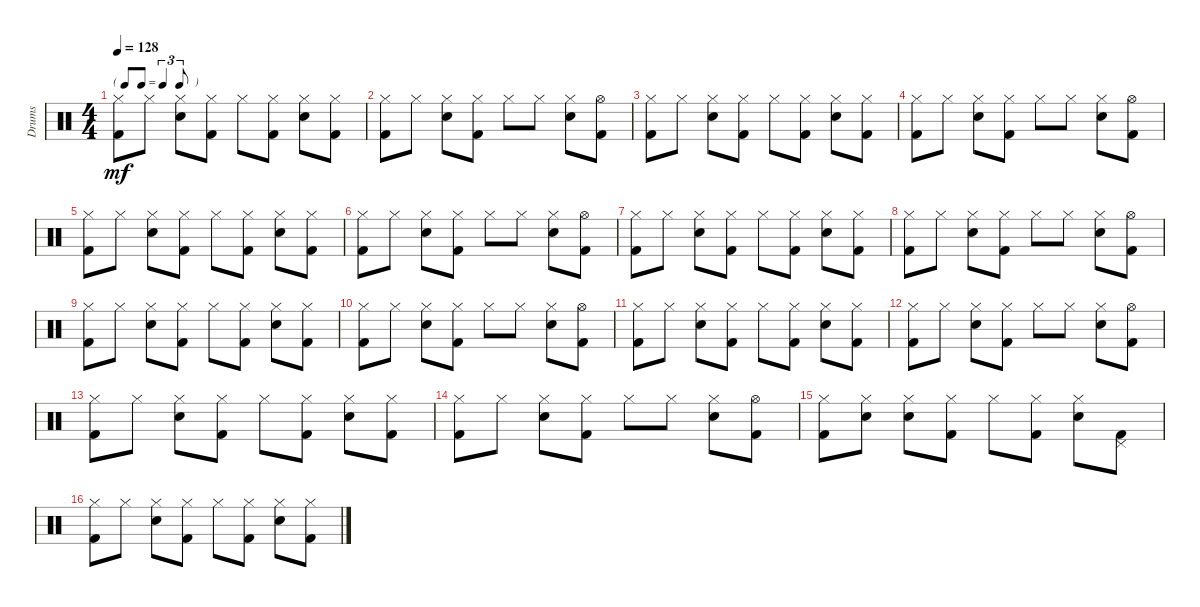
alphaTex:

\track ("Drums" "Drums") {instrument percussion}
\staff {score}
\articulation defaults
\ts (4 4)
\tf triplet8th
\tempo 128
\clef neutral
\ks c
("Hi-Hat (closed)" "Kick (hit) 2").8{dy mf} "Hi-Hat (closed)".8 ("Hi-Hat (closed)" "Electric Snare (hit)").8 ("Hi-Hat (closed)" "Kick (hit) 2").8 "Hi-Hat (closed)".8 ("Hi-Hat (closed)" "Kick (hit) 2").8 ("Hi-Hat (closed)" "Electric Snare (hit)").8 ("Hi-Hat (closed)" "Kick (hit) 2").8 |
("Hi-Hat (closed)" "Kick (hit) 2").8 "Hi-Hat (closed)".8 ("Hi-Hat (closed)" "Electric Snare (hit)").8 ("Hi-Hat (closed)" "Kick (hit) 2").8 "Hi-Hat (closed)".8 "Hi-Hat (closed)".8 ("Hi-Hat (closed)" "Electric Snare (hit)").8 ("Hi-Hat (open)" "Kick (hit) 2").8 |
("Hi-Hat (closed)" "Kick (hit) 2").8 "Hi-Hat (closed)".8 ("Hi-Hat (closed)" "Electric Snare (hit)").8 ("Hi-Hat (closed)" "Kick (hit) 2").8 "Hi-Hat (closed)".8 ("Hi-Hat (closed)" "Kick (hit) 2").8 ("Hi-Hat (closed)" "Electric Snare (hit)").8 ("Hi-Hat (closed)" "Kick (hit) 2").8 |
("Hi-Hat (closed)" "Kick (hit) 2").8 "Hi-Hat (closed)".8 ("Hi-Hat (closed)" "Electric Snare (hit)").8 ("Hi-Hat (closed)" "Kick (hit) 2").8 "Hi-Hat (closed)".8 "Hi-Hat (closed)".8 ("Hi-Hat (closed)" "Electric Snare (hit)").8 ("Hi-Hat (open)" "Kick (hit) 2").8 |
("Hi-Hat (closed)" "Kick (hit) 2").8 "Hi-Hat (closed)".8 ("Hi-Hat (closed)" "Electric Snare (hit)").8 ("Hi-Hat (closed)" "Kick (hit) 2").8 "Hi-Hat (closed)".8 ("Hi-Hat (closed)" "Kick (hit) 2").8 ("Hi-Hat (closed)" "Electric Snare (hit)").8 ("Hi-Hat (closed)" "Kick (hit) 2").8 |
("Hi-Hat (closed)" "Kick (hit) 2").8 "Hi-Hat (closed)".8 ("Hi-Hat (closed)" "Electric Snare (hit)").8 ("Hi-Hat (closed)" "Kick (hit) 2").8 "Hi-Hat (closed)".8 "Hi-Hat (closed)".8 ("Hi-Hat (closed)" "Electric Snare (hit)").8 ("Hi-Hat (open)" "Kick (hit) 2").8 |
("Hi-Hat (closed)" "Kick (hit) 2").8 "Hi-Hat (closed)".8 ("Hi-Hat (closed)" "Electric Snare (hit)").8 ("Hi-Hat (closed)" "Kick (hit) 2").8 "Hi-Hat (closed)".8 ("Hi-Hat (closed)" "Kick (hit) 2").8 ("Hi-Hat (closed)" "Electric Snare (hit)").8 ("Hi-Hat (closed)" "Kick (hit) 2").8 |
("Hi-Hat (closed)" "Kick (hit) 2").8 "Hi-Hat (closed)".8 ("Hi-Hat (closed)" "Electric Snare (hit)").8 ("Hi-Hat (closed)" "Kick (hit) 2").8 "Hi-Hat (closed)".8 "Hi-Hat (closed)".8 ("Hi-Hat (closed)" "Electric Snare (hit)").8 ("Hi-Hat (open)" "Kick (hit) 2").8 |
("Hi-Hat (closed)" "Kick (hit) 2").8 "Hi-Hat (closed)".8 ("Hi-Hat (closed)" "Electric Snare (hit)").8 ("Hi-Hat (closed)" "Kick (hit) 2").8 "Hi-Hat (closed)".8 ("Hi-Hat (closed)" "Kick (hit) 2").8 ("Hi-Hat (closed)" "Electric Snare (hit)").8 ("Hi-Hat (closed)" "Kick (hit) 2").8 |
("Hi-Hat (closed)" "Kick (hit) 2").8 "Hi-Hat (closed)".8 ("Hi-Hat (closed)" "Electric Snare (hit)").8 ("Hi-Hat (closed)" "Kick (hit) 2").8 "Hi-Hat (closed)".8 "Hi-Hat (closed)".8 ("Hi-Hat (closed)" "Electric Snare (hit)").8 ("Hi-Hat (open)" "Kick (hit) 2").8 |
("Hi-Hat (closed)" "Kick (hit) 2").8 "Hi-Hat (closed)".8 ("Hi-Hat (closed)" "Electric Snare (hit)").8 ("Hi-Hat (closed)" "Kick (hit) 2").8 "Hi-Hat (closed)".8 ("Hi-Hat (closed)" "Kick (hit) 2").8 ("Hi-Hat (closed)" "Electric Snare (hit)").8 ("Hi-Hat (closed)" "Kick (hit) 2").8 |
("Hi-Hat (closed)" "Kick (hit) 2").8 "Hi-Hat (closed)".8 ("Hi-Hat (closed)" "Electric Snare (hit)").8 ("Hi-Hat (closed)" "Kick (hit) 2").8 "Hi-Hat (closed)".8 "Hi-Hat (closed)".8 ("Hi-Hat (closed)" "Electric Snare (hit)").8 ("Hi-Hat (open)" "Kick (hit) 2").8 |
("Hi-Hat (closed)" "Kick (hit) 2").8 "Hi-Hat (closed)".8 ("Hi-Hat (closed)" "Electric Snare (hit)").8 ("Hi-Hat (closed)" "Kick (hit) 2").8 "Hi-Hat (closed)".8 ("Hi-Hat (closed)" "Kick (hit) 2").8 ("Hi-Hat (closed)" "Electric Snare (hit)").8 ("Hi-Hat (closed)" "Kick (hit) 2").8 |
("Hi-Hat (closed)" "Kick (hit) 2").8 "Hi-Hat (closed)".8 ("Hi-Hat (closed)" "Electric Snare (hit)").8 ("Hi-Hat (closed)" "Kick (hit) 2").8 "Hi-Hat (closed)".8 "Hi-Hat (closed)".8 ("Hi-Hat (closed)" "Electric Snare (hit)").8 ("Hi-Hat (open)" "Kick (hit) 2").8 |
("Hi-Hat (closed)" "Kick (hit) 2").8 ("Hi-Hat (closed)" "Electric Snare (hit)").8 ("Hi-Hat (closed)" "Electric Snare (hit)").8 ("Hi-Hat (closed)" "Kick (hit) 2").8 "Hi-Hat (closed)".8 ("Hi-Hat (closed)" "Kick (hit) 2").8 ("Hi-Hat (closed)" "Electric Snare (hit)").8 ("Pedal Hi-Hat (hit)" "Kick (hit) 2").8 |
("Hi-Hat (closed)" "Kick (hit) 2").8 "Hi-Hat (closed)".8 ("Hi-Hat (closed)" "Electric Snare (hit)").8 ("Hi-Hat (closed)" "Kick (hit) 2").8 "Hi-Hat (closed)".8 ("Hi-Hat (closed)" "Kick (hit) 2").8 ("Hi-Hat (closed)" "Electric Snare (hit)").8 ("Hi-Hat (closed)" "Kick (hit) 2").8
